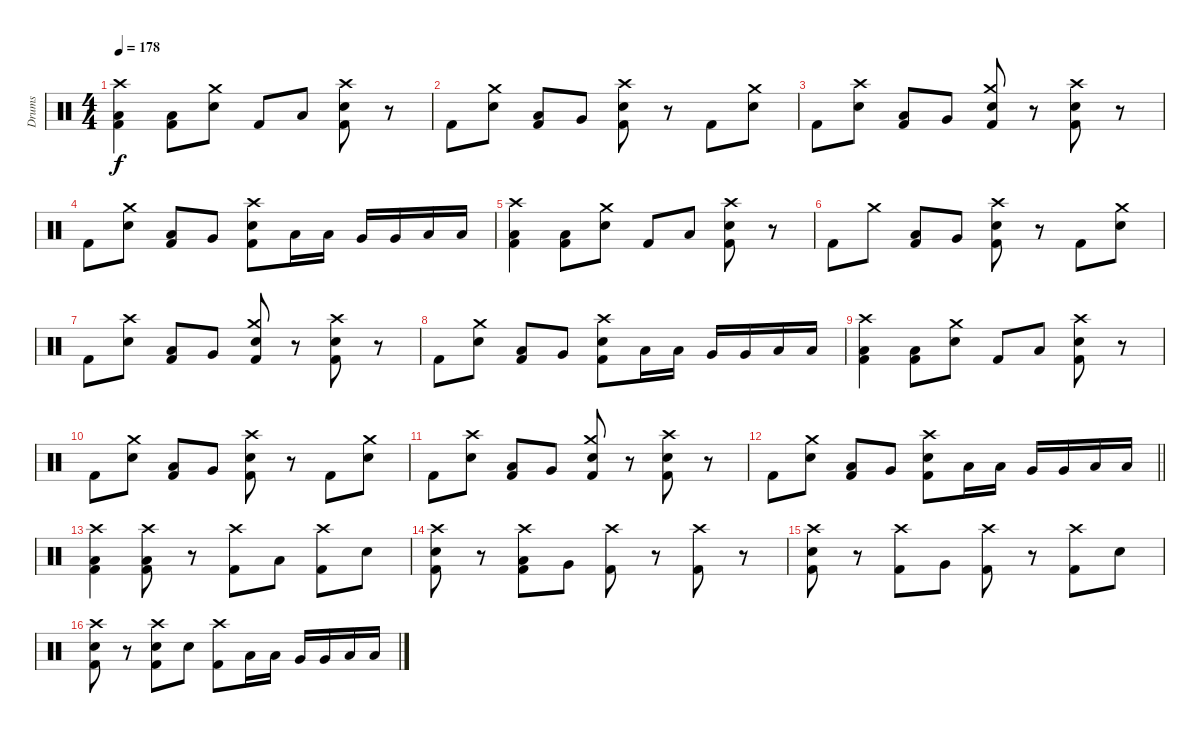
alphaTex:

\track ("Drums" "Drums") {instrument percussion}
\staff {score}
\articulation defaults
\ts (4 4)
\tempo 178
\clef neutral
\ks c
("Crash high (hit)" "Low Floor Tom (hit)" "Kick (hit) 2").4{dy f} ("Low Floor Tom (hit)" "Kick (hit) 2").8 ("Crash medium (hit)" "Electric Snare (hit)").8 "Kick (hit) 2".8 "Low Floor Tom (hit)".8 ("Crash high (hit)" "Electric Snare (hit)" "Kick (hit) 2").8 r.8 |
"Kick (hit) 2".8 ("Crash medium (hit)" "Electric Snare (hit)").8 ("Low Floor Tom (hit)" "Kick (hit) 2").8 "Very Low Tom (hit)".8 ("Crash high (hit)" "Electric Snare (hit)" "Kick (hit) 2").8 r.8 "Kick (hit) 2".8 ("Crash medium (hit)" "Electric Snare (hit)").8 |
"Kick (hit) 2".8 ("Crash high (hit)" "Electric Snare (hit)").8 ("Low Floor Tom (hit)" "Kick (hit) 2").8 "Very Low Tom (hit)".8 ("Crash medium (hit)" "Electric Snare (hit)" "Kick (hit) 2").8 r.8 ("Crash high (hit)" "Electric Snare (hit)" "Kick (hit) 2").8 r.8 |
"Kick (hit) 2".8 ("Crash medium (hit)" "Electric Snare (hit)").8 ("Low Floor Tom (hit)" "Kick (hit) 2").8 "Very Low Tom (hit)".8 ("Crash high (hit)" "Electric Snare (hit)" "Kick (hit) 2").8 "Low Floor Tom (hit)".16 "Low Floor Tom (hit)".16 "Very Low Tom (hit)".16 "Very Low Tom (hit)".16 "Low Floor Tom (hit)".16 "Low Floor Tom (hit)".16 |
("Crash high (hit)" "Low Floor Tom (hit)" "Kick (hit) 2").4 ("Low Floor Tom (hit)" "Kick (hit) 2").8 ("Crash medium (hit)" "Electric Snare (hit)").8 "Kick (hit) 2".8 "Low Floor Tom (hit)".8 ("Crash high (hit)" "Electric Snare (hit)" "Kick (hit) 2").8 r.8 |
"Kick (hit) 2".8 "Crash medium (hit)".8 ("Low Floor Tom (hit)" "Kick (hit) 2").8 "Very Low Tom (hit)".8 ("Crash high (hit)" "Electric Snare (hit)" "Kick (hit) 2").8 r.8 "Kick (hit) 2".8 ("Crash medium (hit)" "Electric Snare (hit)").8 |
"Kick (hit) 2".8 ("Crash high (hit)" "Electric Snare (hit)").8 ("Low Floor Tom (hit)" "Kick (hit) 2").8 "Very Low Tom (hit)".8 ("Crash medium (hit)" "Electric Snare (hit)" "Kick (hit) 2").8 r.8 ("Crash high (hit)" "Electric Snare (hit)" "Kick (hit) 2").8 r.8 |
"Kick (hit) 2".8 ("Crash medium (hit)" "Electric Snare (hit)").8 ("Low Floor Tom (hit)" "Kick (hit) 2").8 "Very Low Tom (hit)".8 ("Crash high (hit)" "Electric Snare (hit)" "Kick (hit) 2").8 "Low Floor Tom (hit)".16 "Low Floor Tom (hit)".16 "Very Low Tom (hit)".16 "Very Low Tom (hit)".16 "Low Floor Tom (hit)".16 "Low Floor Tom (hit)".16 |
("Crash high (hit)" "Low Floor Tom (hit)" "Kick (hit) 2").4 ("Low Floor Tom (hit)" "Kick (hit) 2").8 ("Crash medium (hit)" "Electric Snare (hit)").8 "Kick (hit) 2".8 "Low Floor Tom (hit)".8 ("Crash high (hit)" "Electric Snare (hit)" "Kick (hit) 2").8 r.8 |
"Kick (hit) 2".8 ("Crash medium (hit)" "Electric Snare (hit)").8 ("Low Floor Tom (hit)" "Kick (hit) 2").8 "Very Low Tom (hit)".8 ("Crash high (hit)" "Electric Snare (hit)" "Kick (hit) 2").8 r.8 "Kick (hit) 2".8 ("Crash medium (hit)" "Electric Snare (hit)").8 |
"Kick (hit) 2".8 ("Crash high (hit)" "Electric Snare (hit)").8 ("Low Floor Tom (hit)" "Kick (hit) 2").8 "Very Low Tom (hit)".8 ("Crash medium (hit)" "Electric Snare (hit)" "Kick (hit) 2").8 r.8 ("Crash high (hit)" "Electric Snare (hit)" "Kick (hit) 2").8 r.8 |
\barLineRight lightlight "Kick (hit) 2".8
("Crash medium (hit)" "Electric Snare (hit)").8 ("Low Floor Tom (hit)" "Kick (hit) 2").8 "Very Low Tom (hit)".8 ("Crash high (hit)" "Electric Snare (hit)" "Kick (hit) 2").8 "Low Floor Tom (hit)".16 "Low Floor Tom (hit)".16 "Very Low Tom (hit)".16 "Very Low Tom (hit)".16 "Low Floor Tom (hit)".16 "Low Floor Tom (hit)".16 |
("Crash high (hit)" "Low Floor Tom (hit)" "Kick (hit) 2").4 ("Crash high (hit)" "Low Floor Tom (hit)" "Kick (hit) 2").8 r.8 ("Crash high (hit)" "Kick (hit) 2").8 "Low Floor Tom (hit)".8 ("Crash high (hit)" "Kick (hit) 2").8 "Electric Snare (hit)".8 |
("Crash high (hit)" "Electric Snare (hit)" "Kick (hit) 2").8 r.8 ("Crash high (hit)" "Low Floor Tom (hit)" "Kick (hit) 2").8 "Very Low Tom (hit)".8 ("Crash high (hit)" "Kick (hit) 2").8 r.8 ("Crash high (hit)" "Kick (hit) 2").8 r.8 |
("Crash high (hit)" "Electric Snare (hit)" "Kick (hit) 2").8 r.8 ("Crash high (hit)" "Kick (hit) 2").8 "Very Low Tom (hit)".8 ("Crash high (hit)" "Kick (hit) 2").8 r.8 ("Crash high (hit)" "Kick (hit) 2").8 "Electric Snare (hit)".8 |
("Crash high (hit)" "Electric Snare (hit)" "Kick (hit) 2").8 r.8 ("Crash high (hit)" "Electric Snare (hit)" "Kick (hit) 2").8 "Electric Snare (hit)".8 ("Crash high (hit)" "Kick (hit) 2").8 "Low Floor Tom (hit)".16 "Low Floor Tom (hit)".16 "Very Low Tom (hit)".16 "Very Low Tom (hit)".16 "Low Floor Tom (hit)".16 "Low Floor Tom (hit)".16
